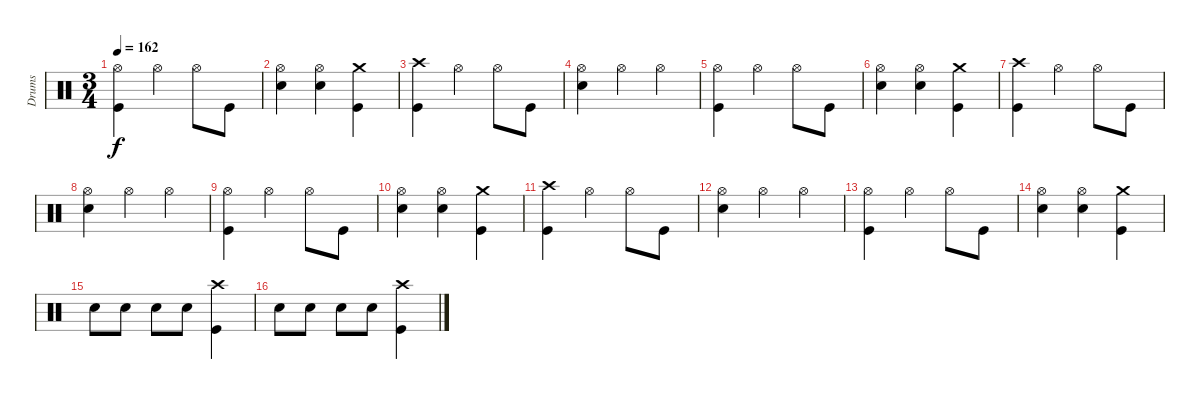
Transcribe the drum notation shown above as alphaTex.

\track ("Drums" "Drums") {instrument percussion}
\staff {score}
\articulation defaults
\ts (3 4)
\tempo 162
\clef neutral
\ks c
("Hi-Hat (open)" "Kick (hit)").4{dy f} "Hi-Hat (open)".4 "Hi-Hat (open)".8 "Kick (hit)".8 |
("Hi-Hat (open)" "Snare (hit) 2").4 ("Hi-Hat (open)" "Snare (hit) 2").4 ("Crash medium (hit)" "Kick (hit)").4 |
("Crash high (hit)" "Kick (hit)").4 "Hi-Hat (open)".4 "Hi-Hat (open)".8 "Kick (hit)".8 |
("Hi-Hat (open)" "Snare (hit) 2").4 "Hi-Hat (open)".4 "Hi-Hat (open)".4 |
("Hi-Hat (open)" "Kick (hit)").4 "Hi-Hat (open)".4 "Hi-Hat (open)".8 "Kick (hit)".8 |
("Hi-Hat (open)" "Snare (hit) 2").4 ("Hi-Hat (open)" "Snare (hit) 2").4 ("Crash medium (hit)" "Kick (hit)").4 |
("Crash high (hit)" "Kick (hit)").4 "Hi-Hat (open)".4 "Hi-Hat (open)".8 "Kick (hit)".8 |
("Hi-Hat (open)" "Snare (hit) 2").4 "Hi-Hat (open)".4 "Hi-Hat (open)".4 |
("Hi-Hat (open)" "Kick (hit)").4 "Hi-Hat (open)".4 "Hi-Hat (open)".8 "Kick (hit)".8 |
("Hi-Hat (open)" "Snare (hit) 2").4 ("Hi-Hat (open)" "Snare (hit) 2").4 ("Crash medium (hit)" "Kick (hit)").4 |
("Crash high (hit)" "Kick (hit)").4 "Hi-Hat (open)".4 "Hi-Hat (open)".8 "Kick (hit)".8 |
("Hi-Hat (open)" "Snare (hit) 2").4 "Hi-Hat (open)".4 "Hi-Hat (open)".4 |
("Hi-Hat (open)" "Kick (hit)").4 "Hi-Hat (open)".4 "Hi-Hat (open)".8 "Kick (hit)".8 |
("Hi-Hat (open)" "Snare (hit) 2").4 ("Hi-Hat (open)" "Snare (hit) 2").4 ("Crash medium (hit)" "Kick (hit)").4 |
"Snare (hit) 2".8 "Snare (hit) 2".8 "Snare (hit) 2".8 "Snare (hit) 2".8 ("Crash high (hit)" "Kick (hit)").4 |
"Snare (hit) 2".8 "Snare (hit) 2".8 "Snare (hit) 2".8 "Snare (hit) 2".8 ("Crash high (hit)" "Kick (hit)").4
